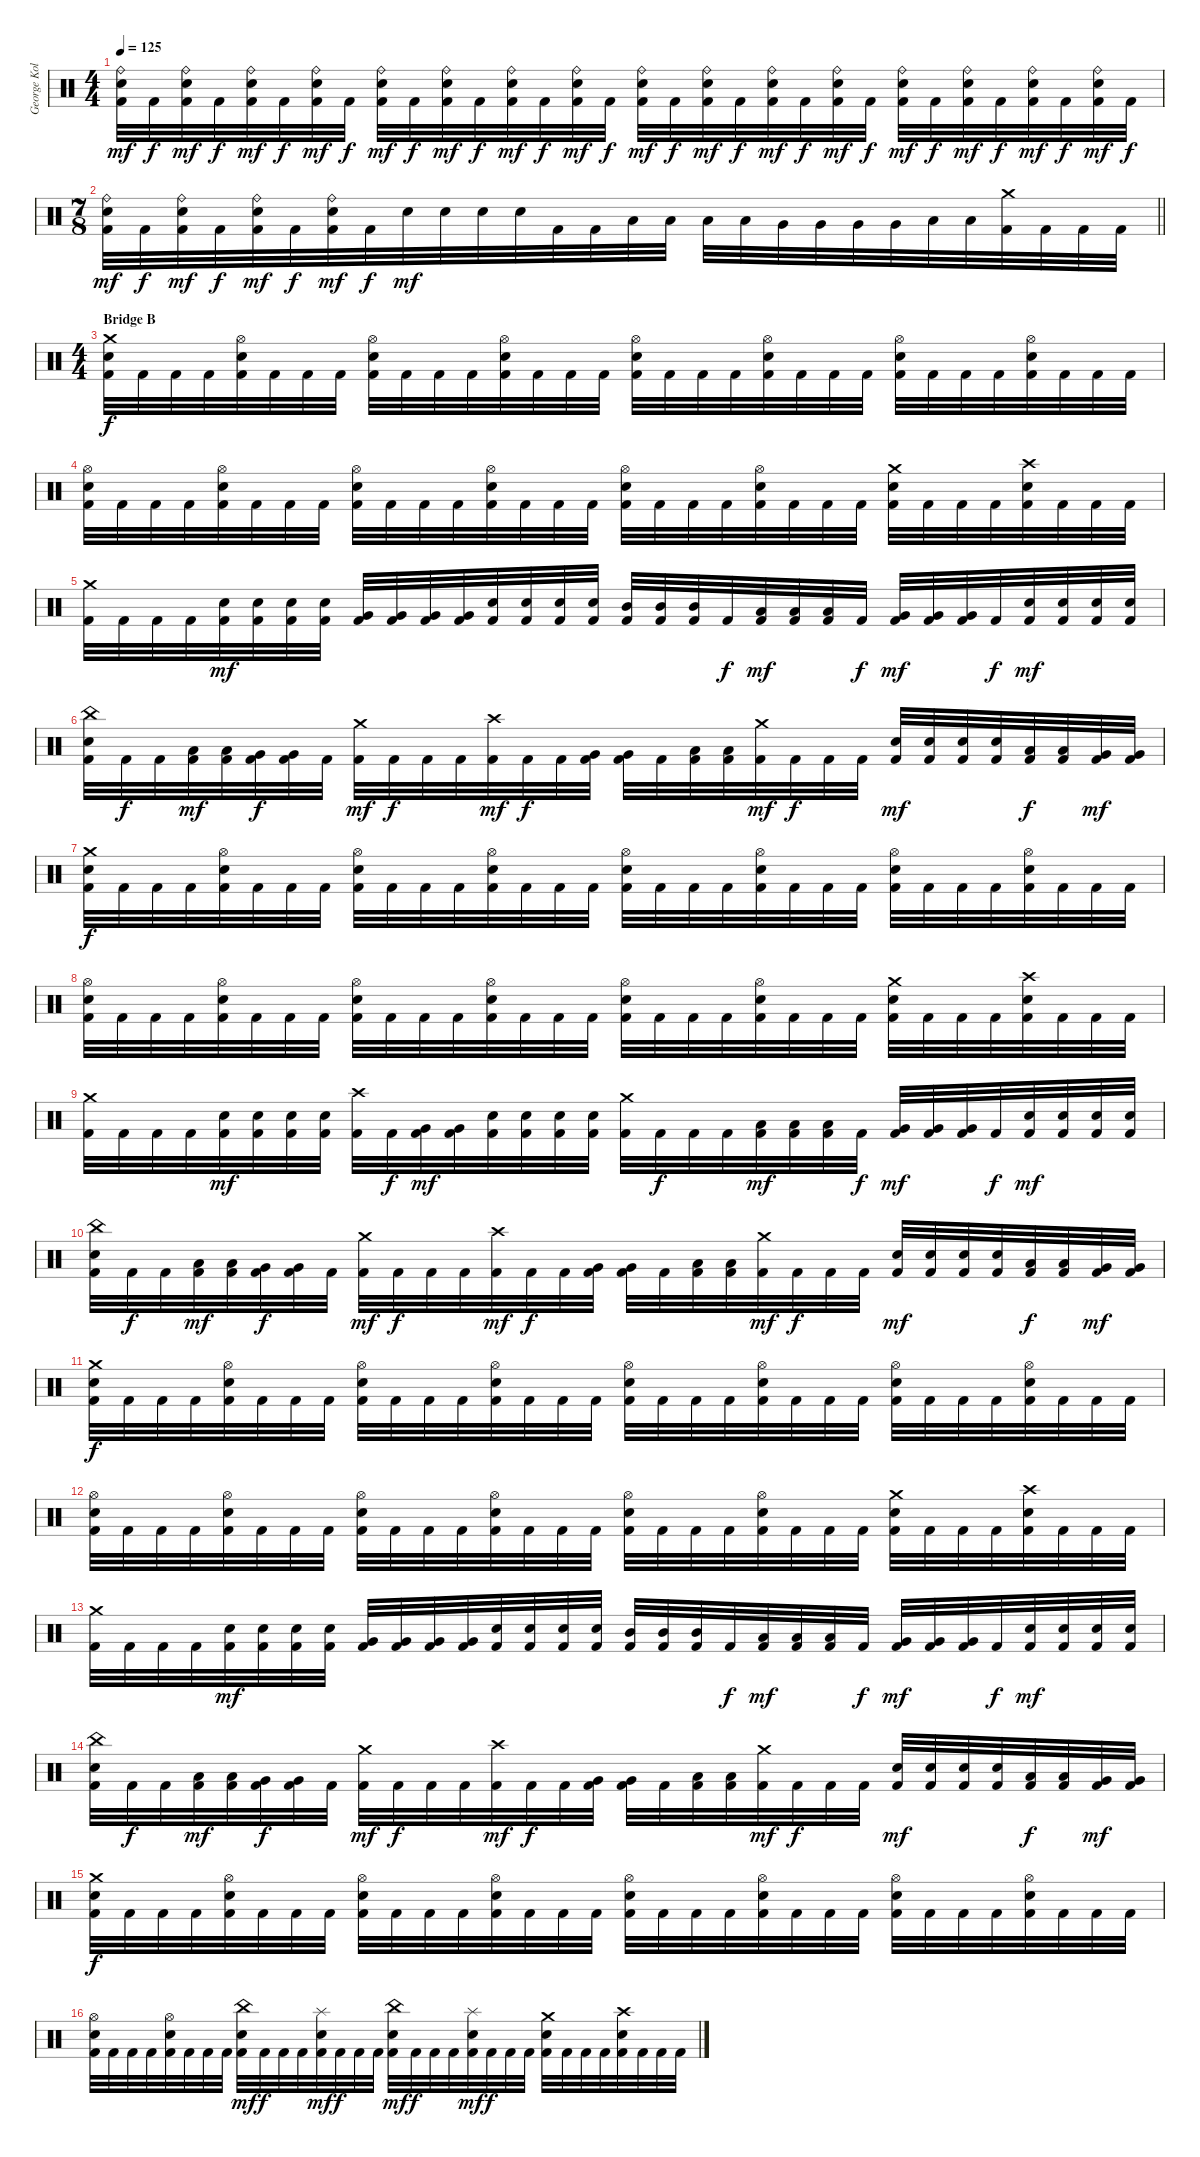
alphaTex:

\track ("George Kollias" "George Kol") {instrument percussion}
\staff {score}
\articulation defaults
\ts (4 4)
\tempo 125
\clef neutral
\ks c
("Ride (bell)" "Electric Snare (hit)" "Kick (hit) 2").32{dy mf} "Kick (hit) 2".32{dy f} ("Ride (bell)" "Electric Snare (hit)" "Kick (hit) 2").32{dy mf} "Kick (hit) 2".32{dy f} ("Ride (bell)" "Electric Snare (hit)" "Kick (hit) 2").32{dy mf} "Kick (hit) 2".32{dy f} ("Ride (bell)" "Electric Snare (hit)" "Kick (hit) 2").32{dy mf} "Kick (hit) 2".32{dy f} ("Ride (bell)" "Electric Snare (hit)" "Kick (hit) 2").32{dy mf} "Kick (hit) 2".32{dy f} ("Ride (bell)" "Electric Snare (hit)" "Kick (hit) 2").32{dy mf} "Kick (hit) 2".32{dy f} ("Ride (bell)" "Electric Snare (hit)" "Kick (hit) 2").32{dy mf} "Kick (hit) 2".32{dy f} ("Ride (bell)" "Electric Snare (hit)" "Kick (hit) 2").32{dy mf} "Kick (hit) 2".32{dy f} ("Ride (bell)" "Electric Snare (hit)" "Kick (hit) 2").32{dy mf} "Kick (hit) 2".32{dy f} ("Ride (bell)" "Electric Snare (hit)" "Kick (hit) 2").32{dy mf} "Kick (hit) 2".32{dy f} ("Ride (bell)" "Electric Snare (hit)" "Kick (hit) 2").32{dy mf} "Kick (hit) 2".32{dy f} ("Ride (bell)" "Electric Snare (hit)" "Kick (hit) 2").32{dy mf} "Kick (hit) 2".32{dy f} ("Ride (bell)" "Electric Snare (hit)" "Kick (hit) 2").32{dy mf} "Kick (hit) 2".32{dy f} ("Ride (bell)" "Electric Snare (hit)" "Kick (hit) 2").32{dy mf} "Kick (hit) 2".32{dy f} ("Ride (bell)" "Electric Snare (hit)" "Kick (hit) 2").32{dy mf} "Kick (hit) 2".32{dy f} ("Ride (bell)" "Electric Snare (hit)" "Kick (hit) 2").32{dy mf} "Kick (hit) 2".32{dy f} |
\ts (7 8)
\barLineRight lightlight
("Ride (bell)" "Electric Snare (hit)" "Kick (hit) 2").32{dy mf} "Kick (hit) 2".32{dy f} ("Ride (bell)" "Electric Snare (hit)" "Kick (hit) 2").32{dy mf} "Kick (hit) 2".32{dy f} ("Ride (bell)" "Electric Snare (hit)" "Kick (hit) 2").32{dy mf} "Kick (hit) 2".32{dy f} ("Ride (bell)" "Electric Snare (hit)" "Kick (hit) 2").32{dy mf} "Kick (hit) 2".32{dy f} "Electric Snare (hit)".32{dy mf} "Electric Snare (hit)".32 "Electric Snare (hit)".32 "Electric Snare (hit)".32 "Kick (hit) 2".32 "Kick (hit) 2".32 "Low Tom (hit)".32 "Low Tom (hit)".32 "Low Tom (hit)".32 "Low Tom (hit)".32 "Very Low Tom (hit)".32 "Very Low Tom (hit)".32 "Very Low Tom (hit)".32 "Very Low Tom (hit)".32 "Low Floor Tom (hit)".32 "Low Floor Tom (hit)".32 ("Crash medium (hit)" "Kick (hit) 2").32 "Kick (hit) 2".32 "Kick (hit) 2".32 "Kick (hit) 2".32 |
\ts (4 4)
\section ("" "Bridge B")
("Crash medium (hit)" "Electric Snare (hit)" "Kick (hit) 2").32{dy f} "Kick (hit) 2".32 "Kick (hit) 2".32 "Kick (hit) 2".32 ("Hi-Hat (open)" "Electric Snare (hit)" "Kick (hit) 2").32 "Kick (hit) 2".32 "Kick (hit) 2".32 "Kick (hit) 2".32 ("Hi-Hat (open)" "Electric Snare (hit)" "Kick (hit) 2").32 "Kick (hit) 2".32 "Kick (hit) 2".32 "Kick (hit) 2".32 ("Hi-Hat (open)" "Electric Snare (hit)" "Kick (hit) 2").32 "Kick (hit) 2".32 "Kick (hit) 2".32 "Kick (hit) 2".32 ("Hi-Hat (open)" "Electric Snare (hit)" "Kick (hit) 2").32 "Kick (hit) 2".32 "Kick (hit) 2".32 "Kick (hit) 2".32 ("Hi-Hat (open)" "Electric Snare (hit)" "Kick (hit) 2").32 "Kick (hit) 2".32 "Kick (hit) 2".32 "Kick (hit) 2".32 ("Hi-Hat (open)" "Electric Snare (hit)" "Kick (hit) 2").32 "Kick (hit) 2".32 "Kick (hit) 2".32 "Kick (hit) 2".32 ("Hi-Hat (open)" "Electric Snare (hit)" "Kick (hit) 2").32 "Kick (hit) 2".32 "Kick (hit) 2".32 "Kick (hit) 2".32 |
("Hi-Hat (open)" "Electric Snare (hit)" "Kick (hit) 2").32 "Kick (hit) 2".32 "Kick (hit) 2".32 "Kick (hit) 2".32 ("Hi-Hat (open)" "Electric Snare (hit)" "Kick (hit) 2").32 "Kick (hit) 2".32 "Kick (hit) 2".32 "Kick (hit) 2".32 ("Hi-Hat (open)" "Electric Snare (hit)" "Kick (hit) 2").32 "Kick (hit) 2".32 "Kick (hit) 2".32 "Kick (hit) 2".32 ("Hi-Hat (open)" "Electric Snare (hit)" "Kick (hit) 2").32 "Kick (hit) 2".32 "Kick (hit) 2".32 "Kick (hit) 2".32 ("Hi-Hat (open)" "Electric Snare (hit)" "Kick (hit) 2").32 "Kick (hit) 2".32 "Kick (hit) 2".32 "Kick (hit) 2".32 ("Hi-Hat (open)" "Electric Snare (hit)" "Kick (hit) 2").32 "Kick (hit) 2".32 "Kick (hit) 2".32 "Kick (hit) 2".32 ("Crash medium (hit)" "Electric Snare (hit)" "Kick (hit) 2").32 "Kick (hit) 2".32 "Kick (hit) 2".32 "Kick (hit) 2".32 ("Crash high (hit)" "Electric Snare (hit)" "Kick (hit) 2").32 "Kick (hit) 2".32 "Kick (hit) 2".32 "Kick (hit) 2".32 |
("Crash medium (hit)" "Kick (hit) 2").32 "Kick (hit) 2".32 "Kick (hit) 2".32 "Kick (hit) 2".32 ("Electric Snare (hit)" "Kick (hit) 2").32{dy mf} ("Electric Snare (hit)" "Kick (hit) 2").32 ("Electric Snare (hit)" "Kick (hit) 2").32 ("Electric Snare (hit)" "Kick (hit) 2").32 ("Very Low Tom (hit)" "Kick (hit) 2").32 ("Very Low Tom (hit)" "Kick (hit) 2").32 ("Very Low Tom (hit)" "Kick (hit) 2").32 ("Very Low Tom (hit)" "Kick (hit) 2").32 ("Electric Snare (hit)" "Kick (hit) 2").32 ("Electric Snare (hit)" "Kick (hit) 2").32 ("Electric Snare (hit)" "Kick (hit) 2").32 ("Electric Snare (hit)" "Kick (hit) 2").32 ("Mid Tom (hit)" "Kick (hit) 2").32 ("Mid Tom (hit)" "Kick (hit) 2").32 ("Mid Tom (hit)" "Kick (hit) 2").32 "Kick (hit) 2".32{dy f} ("Low Tom (hit)" "Kick (hit) 2").32{dy mf} ("Low Tom (hit)" "Kick (hit) 2").32 ("Low Tom (hit)" "Kick (hit) 2").32 "Kick (hit) 2".32{dy f} ("Very Low Tom (hit)" "Kick (hit) 2").32{dy mf} ("Very Low Tom (hit)" "Kick (hit) 2").32 ("Very Low Tom (hit)" "Kick (hit) 2").32 "Kick (hit) 2".32{dy f} ("Electric Snare (hit)" "Kick (hit) 2").32{dy mf} ("Electric Snare (hit)" "Kick (hit) 2").32 ("Electric Snare (hit)" "Kick (hit) 2").32 ("Electric Snare (hit)" "Kick (hit) 2").32 |
("China (hit)" "Electric Snare (hit)" "Kick (hit) 2").32 "Kick (hit) 2".32{dy f} "Kick (hit) 2".32 ("Low Tom (hit)" "Kick (hit) 2").32{dy mf} ("Low Tom (hit)" "Kick (hit) 2").32 ("Very Low Tom (hit)" "Kick (hit) 2").32{dy f} ("Very Low Tom (hit)" "Kick (hit) 2").32 "Kick (hit) 2".32 ("Crash medium (hit)" "Kick (hit) 2").32{dy mf} "Kick (hit) 2".32{dy f} "Kick (hit) 2".32 "Kick (hit) 2".32 ("Crash high (hit)" "Kick (hit) 2").32{dy mf} "Kick (hit) 2".32{dy f} "Kick (hit) 2".32 ("Very Low Tom (hit)" "Kick (hit) 2").32 ("Very Low Tom (hit)" "Kick (hit) 2").32 "Kick (hit) 2".32 ("Low Floor Tom (hit)" "Kick (hit) 2").32 ("Low Floor Tom (hit)" "Kick (hit) 2").32 ("Crash medium (hit)" "Kick (hit) 2").32{dy mf} "Kick (hit) 2".32{dy f} "Kick (hit) 2".32 "Kick (hit) 2".32 ("Electric Snare (hit)" "Kick (hit) 2").32{dy mf} ("Electric Snare (hit)" "Kick (hit) 2").32 ("Electric Snare (hit)" "Kick (hit) 2").32 ("Electric Snare (hit)" "Kick (hit) 2").32 ("Low Tom (hit)" "Kick (hit) 2").32{dy f} ("Low Tom (hit)" "Kick (hit) 2").32 ("Very Low Tom (hit)" "Kick (hit) 2").32{dy mf} ("Very Low Tom (hit)" "Kick (hit) 2").32 |
("Crash medium (hit)" "Electric Snare (hit)" "Kick (hit) 2").32{dy f} "Kick (hit) 2".32 "Kick (hit) 2".32 "Kick (hit) 2".32 ("Hi-Hat (open)" "Electric Snare (hit)" "Kick (hit) 2").32 "Kick (hit) 2".32 "Kick (hit) 2".32 "Kick (hit) 2".32 ("Hi-Hat (open)" "Electric Snare (hit)" "Kick (hit) 2").32 "Kick (hit) 2".32 "Kick (hit) 2".32 "Kick (hit) 2".32 ("Hi-Hat (open)" "Electric Snare (hit)" "Kick (hit) 2").32 "Kick (hit) 2".32 "Kick (hit) 2".32 "Kick (hit) 2".32 ("Hi-Hat (open)" "Electric Snare (hit)" "Kick (hit) 2").32 "Kick (hit) 2".32 "Kick (hit) 2".32 "Kick (hit) 2".32 ("Hi-Hat (open)" "Electric Snare (hit)" "Kick (hit) 2").32 "Kick (hit) 2".32 "Kick (hit) 2".32 "Kick (hit) 2".32 ("Hi-Hat (open)" "Electric Snare (hit)" "Kick (hit) 2").32 "Kick (hit) 2".32 "Kick (hit) 2".32 "Kick (hit) 2".32 ("Hi-Hat (open)" "Electric Snare (hit)" "Kick (hit) 2").32 "Kick (hit) 2".32 "Kick (hit) 2".32 "Kick (hit) 2".32 |
("Hi-Hat (open)" "Electric Snare (hit)" "Kick (hit) 2").32 "Kick (hit) 2".32 "Kick (hit) 2".32 "Kick (hit) 2".32 ("Hi-Hat (open)" "Electric Snare (hit)" "Kick (hit) 2").32 "Kick (hit) 2".32 "Kick (hit) 2".32 "Kick (hit) 2".32 ("Hi-Hat (open)" "Electric Snare (hit)" "Kick (hit) 2").32 "Kick (hit) 2".32 "Kick (hit) 2".32 "Kick (hit) 2".32 ("Hi-Hat (open)" "Electric Snare (hit)" "Kick (hit) 2").32 "Kick (hit) 2".32 "Kick (hit) 2".32 "Kick (hit) 2".32 ("Hi-Hat (open)" "Electric Snare (hit)" "Kick (hit) 2").32 "Kick (hit) 2".32 "Kick (hit) 2".32 "Kick (hit) 2".32 ("Hi-Hat (open)" "Electric Snare (hit)" "Kick (hit) 2").32 "Kick (hit) 2".32 "Kick (hit) 2".32 "Kick (hit) 2".32 ("Crash medium (hit)" "Electric Snare (hit)" "Kick (hit) 2").32 "Kick (hit) 2".32 "Kick (hit) 2".32 "Kick (hit) 2".32 ("Crash high (hit)" "Electric Snare (hit)" "Kick (hit) 2").32 "Kick (hit) 2".32 "Kick (hit) 2".32 "Kick (hit) 2".32 |
("Crash medium (hit)" "Kick (hit) 2").32 "Kick (hit) 2".32 "Kick (hit) 2".32 "Kick (hit) 2".32 ("Electric Snare (hit)" "Kick (hit) 2").32{dy mf} ("Electric Snare (hit)" "Kick (hit) 2").32 ("Electric Snare (hit)" "Kick (hit) 2").32 ("Electric Snare (hit)" "Kick (hit) 2").32 ("Crash high (hit)" "Kick (hit) 2").32 "Kick (hit) 2".32{dy f} ("Very Low Tom (hit)" "Kick (hit) 2").32{dy mf} ("Very Low Tom (hit)" "Kick (hit) 2").32 ("Electric Snare (hit)" "Kick (hit) 2").32 ("Electric Snare (hit)" "Kick (hit) 2").32 ("Electric Snare (hit)" "Kick (hit) 2").32 ("Electric Snare (hit)" "Kick (hit) 2").32 ("Crash medium (hit)" "Kick (hit) 2").32 "Kick (hit) 2".32{dy f} "Kick (hit) 2".32 "Kick (hit) 2".32 ("Low Tom (hit)" "Kick (hit) 2").32{dy mf} ("Low Tom (hit)" "Kick (hit) 2").32 ("Low Tom (hit)" "Kick (hit) 2").32 "Kick (hit) 2".32{dy f} ("Very Low Tom (hit)" "Kick (hit) 2").32{dy mf} ("Very Low Tom (hit)" "Kick (hit) 2").32 ("Very Low Tom (hit)" "Kick (hit) 2").32 "Kick (hit) 2".32{dy f} ("Electric Snare (hit)" "Kick (hit) 2").32{dy mf} ("Electric Snare (hit)" "Kick (hit) 2").32 ("Electric Snare (hit)" "Kick (hit) 2").32 ("Electric Snare (hit)" "Kick (hit) 2").32 |
("China (hit)" "Electric Snare (hit)" "Kick (hit) 2").32 "Kick (hit) 2".32{dy f} "Kick (hit) 2".32 ("Low Tom (hit)" "Kick (hit) 2").32{dy mf} ("Low Tom (hit)" "Kick (hit) 2").32 ("Very Low Tom (hit)" "Kick (hit) 2").32{dy f} ("Very Low Tom (hit)" "Kick (hit) 2").32 "Kick (hit) 2".32 ("Crash medium (hit)" "Kick (hit) 2").32{dy mf} "Kick (hit) 2".32{dy f} "Kick (hit) 2".32 "Kick (hit) 2".32 ("Crash high (hit)" "Kick (hit) 2").32{dy mf} "Kick (hit) 2".32{dy f} "Kick (hit) 2".32 ("Very Low Tom (hit)" "Kick (hit) 2").32 ("Very Low Tom (hit)" "Kick (hit) 2").32 "Kick (hit) 2".32 ("Low Floor Tom (hit)" "Kick (hit) 2").32 ("Low Floor Tom (hit)" "Kick (hit) 2").32 ("Crash medium (hit)" "Kick (hit) 2").32{dy mf} "Kick (hit) 2".32{dy f} "Kick (hit) 2".32 "Kick (hit) 2".32 ("Electric Snare (hit)" "Kick (hit) 2").32{dy mf} ("Electric Snare (hit)" "Kick (hit) 2").32 ("Electric Snare (hit)" "Kick (hit) 2").32 ("Electric Snare (hit)" "Kick (hit) 2").32 ("Low Tom (hit)" "Kick (hit) 2").32{dy f} ("Low Tom (hit)" "Kick (hit) 2").32 ("Very Low Tom (hit)" "Kick (hit) 2").32{dy mf} ("Very Low Tom (hit)" "Kick (hit) 2").32 |
("Crash medium (hit)" "Electric Snare (hit)" "Kick (hit) 2").32{dy f} "Kick (hit) 2".32 "Kick (hit) 2".32 "Kick (hit) 2".32 ("Hi-Hat (open)" "Electric Snare (hit)" "Kick (hit) 2").32 "Kick (hit) 2".32 "Kick (hit) 2".32 "Kick (hit) 2".32 ("Hi-Hat (open)" "Electric Snare (hit)" "Kick (hit) 2").32 "Kick (hit) 2".32 "Kick (hit) 2".32 "Kick (hit) 2".32 ("Hi-Hat (open)" "Electric Snare (hit)" "Kick (hit) 2").32 "Kick (hit) 2".32 "Kick (hit) 2".32 "Kick (hit) 2".32 ("Hi-Hat (open)" "Electric Snare (hit)" "Kick (hit) 2").32 "Kick (hit) 2".32 "Kick (hit) 2".32 "Kick (hit) 2".32 ("Hi-Hat (open)" "Electric Snare (hit)" "Kick (hit) 2").32 "Kick (hit) 2".32 "Kick (hit) 2".32 "Kick (hit) 2".32 ("Hi-Hat (open)" "Electric Snare (hit)" "Kick (hit) 2").32 "Kick (hit) 2".32 "Kick (hit) 2".32 "Kick (hit) 2".32 ("Hi-Hat (open)" "Electric Snare (hit)" "Kick (hit) 2").32 "Kick (hit) 2".32 "Kick (hit) 2".32 "Kick (hit) 2".32 |
("Hi-Hat (open)" "Electric Snare (hit)" "Kick (hit) 2").32 "Kick (hit) 2".32 "Kick (hit) 2".32 "Kick (hit) 2".32 ("Hi-Hat (open)" "Electric Snare (hit)" "Kick (hit) 2").32 "Kick (hit) 2".32 "Kick (hit) 2".32 "Kick (hit) 2".32 ("Hi-Hat (open)" "Electric Snare (hit)" "Kick (hit) 2").32 "Kick (hit) 2".32 "Kick (hit) 2".32 "Kick (hit) 2".32 ("Hi-Hat (open)" "Electric Snare (hit)" "Kick (hit) 2").32 "Kick (hit) 2".32 "Kick (hit) 2".32 "Kick (hit) 2".32 ("Hi-Hat (open)" "Electric Snare (hit)" "Kick (hit) 2").32 "Kick (hit) 2".32 "Kick (hit) 2".32 "Kick (hit) 2".32 ("Hi-Hat (open)" "Electric Snare (hit)" "Kick (hit) 2").32 "Kick (hit) 2".32 "Kick (hit) 2".32 "Kick (hit) 2".32 ("Crash medium (hit)" "Electric Snare (hit)" "Kick (hit) 2").32 "Kick (hit) 2".32 "Kick (hit) 2".32 "Kick (hit) 2".32 ("Crash high (hit)" "Electric Snare (hit)" "Kick (hit) 2").32 "Kick (hit) 2".32 "Kick (hit) 2".32 "Kick (hit) 2".32 |
("Crash medium (hit)" "Kick (hit) 2").32 "Kick (hit) 2".32 "Kick (hit) 2".32 "Kick (hit) 2".32 ("Electric Snare (hit)" "Kick (hit) 2").32{dy mf} ("Electric Snare (hit)" "Kick (hit) 2").32 ("Electric Snare (hit)" "Kick (hit) 2").32 ("Electric Snare (hit)" "Kick (hit) 2").32 ("Very Low Tom (hit)" "Kick (hit) 2").32 ("Very Low Tom (hit)" "Kick (hit) 2").32 ("Very Low Tom (hit)" "Kick (hit) 2").32 ("Very Low Tom (hit)" "Kick (hit) 2").32 ("Electric Snare (hit)" "Kick (hit) 2").32 ("Electric Snare (hit)" "Kick (hit) 2").32 ("Electric Snare (hit)" "Kick (hit) 2").32 ("Electric Snare (hit)" "Kick (hit) 2").32 ("Mid Tom (hit)" "Kick (hit) 2").32 ("Mid Tom (hit)" "Kick (hit) 2").32 ("Mid Tom (hit)" "Kick (hit) 2").32 "Kick (hit) 2".32{dy f} ("Low Tom (hit)" "Kick (hit) 2").32{dy mf} ("Low Tom (hit)" "Kick (hit) 2").32 ("Low Tom (hit)" "Kick (hit) 2").32 "Kick (hit) 2".32{dy f} ("Very Low Tom (hit)" "Kick (hit) 2").32{dy mf} ("Very Low Tom (hit)" "Kick (hit) 2").32 ("Very Low Tom (hit)" "Kick (hit) 2").32 "Kick (hit) 2".32{dy f} ("Electric Snare (hit)" "Kick (hit) 2").32{dy mf} ("Electric Snare (hit)" "Kick (hit) 2").32 ("Electric Snare (hit)" "Kick (hit) 2").32 ("Electric Snare (hit)" "Kick (hit) 2").32 |
("China (hit)" "Electric Snare (hit)" "Kick (hit) 2").32 "Kick (hit) 2".32{dy f} "Kick (hit) 2".32 ("Low Tom (hit)" "Kick (hit) 2").32{dy mf} ("Low Tom (hit)" "Kick (hit) 2").32 ("Very Low Tom (hit)" "Kick (hit) 2").32{dy f} ("Very Low Tom (hit)" "Kick (hit) 2").32 "Kick (hit) 2".32 ("Crash medium (hit)" "Kick (hit) 2").32{dy mf} "Kick (hit) 2".32{dy f} "Kick (hit) 2".32 "Kick (hit) 2".32 ("Crash high (hit)" "Kick (hit) 2").32{dy mf} "Kick (hit) 2".32{dy f} "Kick (hit) 2".32 ("Very Low Tom (hit)" "Kick (hit) 2").32 ("Very Low Tom (hit)" "Kick (hit) 2").32 "Kick (hit) 2".32 ("Low Floor Tom (hit)" "Kick (hit) 2").32 ("Low Floor Tom (hit)" "Kick (hit) 2").32 ("Crash medium (hit)" "Kick (hit) 2").32{dy mf} "Kick (hit) 2".32{dy f} "Kick (hit) 2".32 "Kick (hit) 2".32 ("Electric Snare (hit)" "Kick (hit) 2").32{dy mf} ("Electric Snare (hit)" "Kick (hit) 2").32 ("Electric Snare (hit)" "Kick (hit) 2").32 ("Electric Snare (hit)" "Kick (hit) 2").32 ("Low Tom (hit)" "Kick (hit) 2").32{dy f} ("Low Tom (hit)" "Kick (hit) 2").32 ("Very Low Tom (hit)" "Kick (hit) 2").32{dy mf} ("Very Low Tom (hit)" "Kick (hit) 2").32 |
("Crash medium (hit)" "Electric Snare (hit)" "Kick (hit) 2").32{dy f} "Kick (hit) 2".32 "Kick (hit) 2".32 "Kick (hit) 2".32 ("Hi-Hat (open)" "Electric Snare (hit)" "Kick (hit) 2").32 "Kick (hit) 2".32 "Kick (hit) 2".32 "Kick (hit) 2".32 ("Hi-Hat (open)" "Electric Snare (hit)" "Kick (hit) 2").32 "Kick (hit) 2".32 "Kick (hit) 2".32 "Kick (hit) 2".32 ("Hi-Hat (open)" "Electric Snare (hit)" "Kick (hit) 2").32 "Kick (hit) 2".32 "Kick (hit) 2".32 "Kick (hit) 2".32 ("Hi-Hat (open)" "Electric Snare (hit)" "Kick (hit) 2").32 "Kick (hit) 2".32 "Kick (hit) 2".32 "Kick (hit) 2".32 ("Hi-Hat (open)" "Electric Snare (hit)" "Kick (hit) 2").32 "Kick (hit) 2".32 "Kick (hit) 2".32 "Kick (hit) 2".32 ("Hi-Hat (open)" "Electric Snare (hit)" "Kick (hit) 2").32 "Kick (hit) 2".32 "Kick (hit) 2".32 "Kick (hit) 2".32 ("Hi-Hat (open)" "Electric Snare (hit)" "Kick (hit) 2").32 "Kick (hit) 2".32 "Kick (hit) 2".32 "Kick (hit) 2".32 |
("Hi-Hat (open)" "Electric Snare (hit)" "Kick (hit) 2").32 "Kick (hit) 2".32 "Kick (hit) 2".32 "Kick (hit) 2".32 ("Hi-Hat (open)" "Electric Snare (hit)" "Kick (hit) 2").32 "Kick (hit) 2".32 "Kick (hit) 2".32 "Kick (hit) 2".32 ("China (hit)" "Electric Snare (hit)" "Kick (hit) 2").32{dy mf} "Kick (hit) 2".32{dy f} "Kick (hit) 2".32 "Kick (hit) 2".32 ("Splash (hit)" "Electric Snare (hit)" "Kick (hit) 2").32{dy mf} "Kick (hit) 2".32{dy f} "Kick (hit) 2".32 "Kick (hit) 2".32 ("China (hit)" "Electric Snare (hit)" "Kick (hit) 2").32{dy mf} "Kick (hit) 2".32{dy f} "Kick (hit) 2".32 "Kick (hit) 2".32 ("Splash (hit)" "Electric Snare (hit)" "Kick (hit) 2").32{dy mf} "Kick (hit) 2".32{dy f} "Kick (hit) 2".32 "Kick (hit) 2".32 ("Crash medium (hit)" "Electric Snare (hit)" "Kick (hit) 2").32 "Kick (hit) 2".32 "Kick (hit) 2".32 "Kick (hit) 2".32 ("Crash high (hit)" "Electric Snare (hit)" "Kick (hit) 2").32 "Kick (hit) 2".32 "Kick (hit) 2".32 "Kick (hit) 2".32
